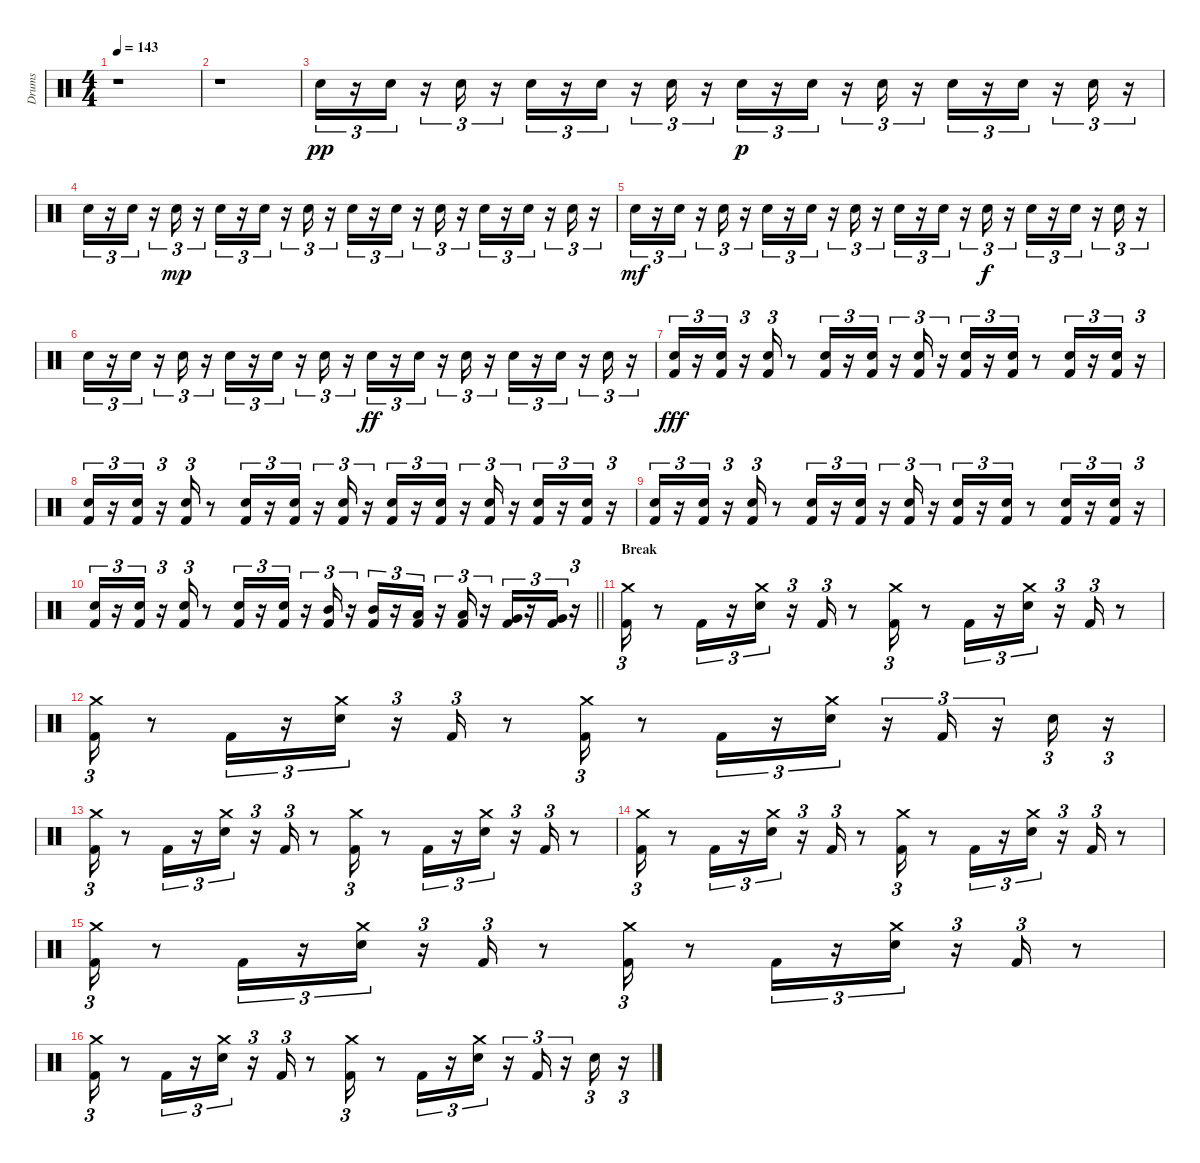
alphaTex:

\track ("Drums" "Drums") {instrument percussion}
\staff {score}
\articulation defaults
\ts (4 4)
\tempo 143
\clef neutral
\ks c
r.1{dy fff} |
r.1 |
"Snare (hit) 2".16{tu (3 2) dy pp} r.16{tu (3 2)} "Snare (hit) 2".16{tu (3 2)} r.16{tu (3 2)} "Snare (hit) 2".16{tu (3 2)} r.16{tu (3 2)} "Snare (hit) 2".16{tu (3 2)} r.16{tu (3 2)} "Snare (hit) 2".16{tu (3 2)} r.16{tu (3 2)} "Snare (hit) 2".16{tu (3 2)} r.16{tu (3 2)} "Snare (hit) 2".16{tu (3 2) dy p} r.16{tu (3 2)} "Snare (hit) 2".16{tu (3 2)} r.16{tu (3 2)} "Snare (hit) 2".16{tu (3 2)} r.16{tu (3 2)} "Snare (hit) 2".16{tu (3 2)} r.16{tu (3 2)} "Snare (hit) 2".16{tu (3 2)} r.16{tu (3 2)} "Snare (hit) 2".16{tu (3 2)} r.16{tu (3 2)} |
"Snare (hit) 2".16{tu (3 2)} r.16{tu (3 2)} "Snare (hit) 2".16{tu (3 2)} r.16{tu (3 2)} "Snare (hit) 2".16{tu (3 2) dy mp} r.16{tu (3 2)} "Snare (hit) 2".16{tu (3 2)} r.16{tu (3 2)} "Snare (hit) 2".16{tu (3 2)} r.16{tu (3 2)} "Snare (hit) 2".16{tu (3 2)} r.16{tu (3 2)} "Snare (hit) 2".16{tu (3 2)} r.16{tu (3 2)} "Snare (hit) 2".16{tu (3 2)} r.16{tu (3 2)} "Snare (hit) 2".16{tu (3 2)} r.16{tu (3 2)} "Snare (hit) 2".16{tu (3 2)} r.16{tu (3 2)} "Snare (hit) 2".16{tu (3 2)} r.16{tu (3 2)} "Snare (hit) 2".16{tu (3 2)} r.16{tu (3 2)} |
"Snare (hit) 2".16{tu (3 2) dy mf} r.16{tu (3 2)} "Snare (hit) 2".16{tu (3 2)} r.16{tu (3 2)} "Snare (hit) 2".16{tu (3 2)} r.16{tu (3 2)} "Snare (hit) 2".16{tu (3 2)} r.16{tu (3 2)} "Snare (hit) 2".16{tu (3 2)} r.16{tu (3 2)} "Snare (hit) 2".16{tu (3 2)} r.16{tu (3 2)} "Snare (hit) 2".16{tu (3 2)} r.16{tu (3 2)} "Snare (hit) 2".16{tu (3 2)} r.16{tu (3 2)} "Snare (hit) 2".16{tu (3 2) dy f} r.16{tu (3 2)} "Snare (hit) 2".16{tu (3 2)} r.16{tu (3 2)} "Snare (hit) 2".16{tu (3 2)} r.16{tu (3 2)} "Snare (hit) 2".16{tu (3 2)} r.16{tu (3 2)} |
"Snare (hit) 2".16{tu (3 2)} r.16{tu (3 2)} "Snare (hit) 2".16{tu (3 2)} r.16{tu (3 2)} "Snare (hit) 2".16{tu (3 2)} r.16{tu (3 2)} "Snare (hit) 2".16{tu (3 2)} r.16{tu (3 2)} "Snare (hit) 2".16{tu (3 2)} r.16{tu (3 2)} "Snare (hit) 2".16{tu (3 2)} r.16{tu (3 2)} "Snare (hit) 2".16{tu (3 2) dy ff} r.16{tu (3 2)} "Snare (hit) 2".16{tu (3 2)} r.16{tu (3 2)} "Snare (hit) 2".16{tu (3 2)} r.16{tu (3 2)} "Snare (hit) 2".16{tu (3 2)} r.16{tu (3 2)} "Snare (hit) 2".16{tu (3 2)} r.16{tu (3 2)} "Snare (hit) 2".16{tu (3 2)} r.16{tu (3 2)} |
("Kick (hit) 2" "Snare (hit) 2").16{tu (3 2) dy fff} r.16{tu (3 2)} ("Kick (hit) 2" "Snare (hit) 2").16{tu (3 2)} r.16{tu (3 2)} ("Kick (hit) 2" "Snare (hit) 2").16{tu (3 2)} r.8 ("Kick (hit) 2" "Snare (hit) 2").16{tu (3 2)} r.16{tu (3 2)} ("Kick (hit) 2" "Snare (hit) 2").16{tu (3 2)} r.16{tu (3 2)} ("Kick (hit) 2" "Snare (hit) 2").16{tu (3 2)} r.16{tu (3 2)} ("Kick (hit) 2" "Snare (hit) 2").16{tu (3 2)} r.16{tu (3 2)} ("Kick (hit) 2" "Snare (hit) 2").16{tu (3 2)} r.8 ("Kick (hit) 2" "Snare (hit) 2").16{tu (3 2)} r.16{tu (3 2)} ("Kick (hit) 2" "Snare (hit) 2").16{tu (3 2)} r.16{tu (3 2)} |
("Kick (hit) 2" "Snare (hit) 2").16{tu (3 2)} r.16{tu (3 2)} ("Kick (hit) 2" "Snare (hit) 2").16{tu (3 2)} r.16{tu (3 2)} ("Kick (hit) 2" "Snare (hit) 2").16{tu (3 2)} r.8 ("Kick (hit) 2" "Snare (hit) 2").16{tu (3 2)} r.16{tu (3 2)} ("Kick (hit) 2" "Snare (hit) 2").16{tu (3 2)} r.16{tu (3 2)} ("Kick (hit) 2" "Snare (hit) 2").16{tu (3 2)} r.16{tu (3 2)} ("Kick (hit) 2" "Snare (hit) 2").16{tu (3 2)} r.16{tu (3 2)} ("Kick (hit) 2" "Snare (hit) 2").16{tu (3 2)} r.16{tu (3 2)} ("Kick (hit) 2" "Snare (hit) 2").16{tu (3 2)} r.16{tu (3 2)} ("Kick (hit) 2" "Snare (hit) 2").16{tu (3 2)} r.16{tu (3 2)} ("Kick (hit) 2" "Snare (hit) 2").16{tu (3 2)} r.16{tu (3 2)} |
("Kick (hit) 2" "Snare (hit) 2").16{tu (3 2)} r.16{tu (3 2)} ("Kick (hit) 2" "Snare (hit) 2").16{tu (3 2)} r.16{tu (3 2)} ("Kick (hit) 2" "Snare (hit) 2").16{tu (3 2)} r.8 ("Kick (hit) 2" "Snare (hit) 2").16{tu (3 2)} r.16{tu (3 2)} ("Kick (hit) 2" "Snare (hit) 2").16{tu (3 2)} r.16{tu (3 2)} ("Kick (hit) 2" "Snare (hit) 2").16{tu (3 2)} r.16{tu (3 2)} ("Kick (hit) 2" "Snare (hit) 2").16{tu (3 2)} r.16{tu (3 2)} ("Kick (hit) 2" "Snare (hit) 2").16{tu (3 2)} r.8 ("Kick (hit) 2" "Snare (hit) 2").16{tu (3 2)} r.16{tu (3 2)} ("Kick (hit) 2" "Snare (hit) 2").16{tu (3 2)} r.16{tu (3 2)} |
\barLineRight lightlight
("Snare (hit) 2" "Kick (hit) 2").16{tu (3 2)} r.16{tu (3 2)} ("Snare (hit) 2" "Kick (hit) 2").16{tu (3 2)} r.16{tu (3 2)} ("Snare (hit) 2" "Kick (hit) 2").16{tu (3 2)} r.8 ("Snare (hit) 2" "Kick (hit) 2").16{tu (3 2)} r.16{tu (3 2)} ("Snare (hit) 2" "Kick (hit) 2").16{tu (3 2)} r.16{tu (3 2)} ("Mid Tom (hit)" "Kick (hit) 2").16{tu (3 2)} r.16{tu (3 2)} ("Mid Tom (hit)" "Kick (hit) 2").16{tu (3 2)} r.16{tu (3 2)} ("Low Tom (hit)" "Kick (hit) 2").16{tu (3 2)} r.16{tu (3 2)} ("Low Tom (hit)" "Kick (hit) 2").16{tu (3 2)} r.16{tu (3 2)} ("Very Low Tom (hit)" "Kick (hit) 2").16{tu (3 2)} r.16{tu (3 2)} ("Very Low Tom (hit)" "Kick (hit) 2").16{tu (3 2)} r.16{tu (3 2)} |
\section ("" "Break")
("Crash medium (hit)" "Kick (hit) 2").16{tu (3 2)} r.8 "Kick (hit) 2".16{tu (3 2)} r.16{tu (3 2)} ("Crash medium (hit)" "Snare (hit) 2").16{tu (3 2)} r.16{tu (3 2)} "Kick (hit) 2".16{tu (3 2)} r.8 ("Crash medium (hit)" "Kick (hit) 2").16{tu (3 2)} r.8 "Kick (hit) 2".16{tu (3 2)} r.16{tu (3 2)} ("Crash medium (hit)" "Snare (hit) 2").16{tu (3 2)} r.16{tu (3 2)} "Kick (hit) 2".16{tu (3 2)} r.8 |
("Crash medium (hit)" "Kick (hit) 2").16{tu (3 2)} r.8 "Kick (hit) 2".16{tu (3 2)} r.16{tu (3 2)} ("Crash medium (hit)" "Snare (hit) 2").16{tu (3 2)} r.16{tu (3 2)} "Kick (hit) 2".16{tu (3 2)} r.8 ("Crash medium (hit)" "Kick (hit) 2").16{tu (3 2)} r.8 "Kick (hit) 2".16{tu (3 2)} r.16{tu (3 2)} ("Crash medium (hit)" "Snare (hit) 2").16{tu (3 2)} r.16{tu (3 2)} "Kick (hit) 2".16{tu (3 2)} r.16{tu (3 2)} "Snare (hit) 2".16{tu (3 2)} r.16{tu (3 2)} |
("Crash medium (hit)" "Kick (hit) 2").16{tu (3 2)} r.8 "Kick (hit) 2".16{tu (3 2)} r.16{tu (3 2)} ("Crash medium (hit)" "Snare (hit) 2").16{tu (3 2)} r.16{tu (3 2)} "Kick (hit) 2".16{tu (3 2)} r.8 ("Crash medium (hit)" "Kick (hit) 2").16{tu (3 2)} r.8 "Kick (hit) 2".16{tu (3 2)} r.16{tu (3 2)} ("Crash medium (hit)" "Snare (hit) 2").16{tu (3 2)} r.16{tu (3 2)} "Kick (hit) 2".16{tu (3 2)} r.8 |
("Crash medium (hit)" "Kick (hit) 2").16{tu (3 2)} r.8 "Kick (hit) 2".16{tu (3 2)} r.16{tu (3 2)} ("Crash medium (hit)" "Snare (hit) 2").16{tu (3 2)} r.16{tu (3 2)} "Kick (hit) 2".16{tu (3 2)} r.8 ("Crash medium (hit)" "Kick (hit) 2").16{tu (3 2)} r.8 "Kick (hit) 2".16{tu (3 2)} r.16{tu (3 2)} ("Crash medium (hit)" "Snare (hit) 2").16{tu (3 2)} r.16{tu (3 2)} "Kick (hit) 2".16{tu (3 2)} r.8 |
("Crash medium (hit)" "Kick (hit) 2").16{tu (3 2)} r.8 "Kick (hit) 2".16{tu (3 2)} r.16{tu (3 2)} ("Crash medium (hit)" "Snare (hit) 2").16{tu (3 2)} r.16{tu (3 2)} "Kick (hit) 2".16{tu (3 2)} r.8 ("Crash medium (hit)" "Kick (hit) 2").16{tu (3 2)} r.8 "Kick (hit) 2".16{tu (3 2)} r.16{tu (3 2)} ("Crash medium (hit)" "Snare (hit) 2").16{tu (3 2)} r.16{tu (3 2)} "Kick (hit) 2".16{tu (3 2)} r.8 |
("Crash medium (hit)" "Kick (hit) 2").16{tu (3 2)} r.8 "Kick (hit) 2".16{tu (3 2)} r.16{tu (3 2)} ("Crash medium (hit)" "Snare (hit) 2").16{tu (3 2)} r.16{tu (3 2)} "Kick (hit) 2".16{tu (3 2)} r.8 ("Crash medium (hit)" "Kick (hit) 2").16{tu (3 2)} r.8 "Kick (hit) 2".16{tu (3 2)} r.16{tu (3 2)} ("Crash medium (hit)" "Snare (hit) 2").16{tu (3 2)} r.16{tu (3 2)} "Kick (hit) 2".16{tu (3 2)} r.16{tu (3 2)} "Snare (hit) 2".16{tu (3 2)} r.16{tu (3 2)}
